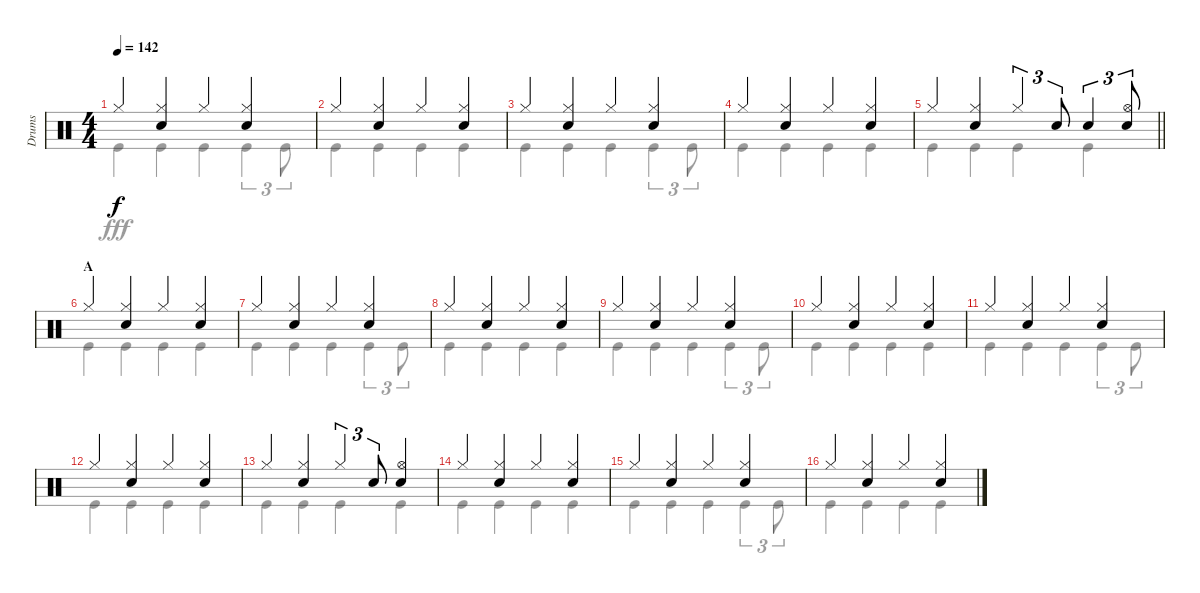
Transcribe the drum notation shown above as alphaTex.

\track ("Drums" "Drums") {instrument percussion}
\staff {score}
\articulation defaults
\voice
\ts (4 4)
\tempo 142
\clef neutral
\ks c "Hi-Hat (closed)".4{dy f}
("Hi-Hat (closed)" "Snare (hit) 2").4 "Hi-Hat (closed)".4 ("Hi-Hat (closed)" "Snare (hit) 2").4 |
"Hi-Hat (closed)".4 ("Hi-Hat (closed)" "Snare (hit) 2").4 "Hi-Hat (closed)".4 ("Hi-Hat (closed)" "Snare (hit) 2").4 |
"Hi-Hat (closed)".4 ("Hi-Hat (closed)" "Snare (hit) 2").4 "Hi-Hat (closed)".4 ("Hi-Hat (closed)" "Snare (hit) 2").4 |
"Hi-Hat (closed)".4 ("Hi-Hat (closed)" "Snare (hit) 2").4 "Hi-Hat (closed)".4 ("Hi-Hat (closed)" "Snare (hit) 2").4 |
\barLineRight lightlight "Hi-Hat (closed)".4
("Hi-Hat (closed)" "Snare (hit) 2").4 "Hi-Hat (closed)".4{tu (3 2)} "Snare (hit) 2".8{tu (3 2)} "Snare (hit) 2".4{tu (3 2)} ("Hi-Hat (open)" "Snare (hit) 2").8{tu (3 2)} |
\section ("" "A")
"Hi-Hat (closed)".4 ("Hi-Hat (closed)" "Snare (hit) 2").4 "Hi-Hat (closed)".4 ("Hi-Hat (closed)" "Snare (hit) 2").4 |
"Hi-Hat (closed)".4 ("Hi-Hat (closed)" "Snare (hit) 2").4 "Hi-Hat (closed)".4 ("Hi-Hat (closed)" "Snare (hit) 2").4 |
"Hi-Hat (closed)".4 ("Hi-Hat (closed)" "Snare (hit) 2").4 "Hi-Hat (closed)".4 ("Hi-Hat (closed)" "Snare (hit) 2").4 |
"Hi-Hat (closed)".4 ("Hi-Hat (closed)" "Snare (hit) 2").4 "Hi-Hat (closed)".4 ("Hi-Hat (closed)" "Snare (hit) 2").4 |
"Hi-Hat (closed)".4 ("Hi-Hat (closed)" "Snare (hit) 2").4 "Hi-Hat (closed)".4 ("Hi-Hat (closed)" "Snare (hit) 2").4 |
"Hi-Hat (closed)".4 ("Hi-Hat (closed)" "Snare (hit) 2").4 "Hi-Hat (closed)".4 ("Hi-Hat (closed)" "Snare (hit) 2").4 |
"Hi-Hat (closed)".4 ("Hi-Hat (closed)" "Snare (hit) 2").4 "Hi-Hat (closed)".4 ("Hi-Hat (closed)" "Snare (hit) 2").4 |
"Hi-Hat (closed)".4 ("Hi-Hat (closed)" "Snare (hit) 2").4 "Hi-Hat (closed)".4{tu (3 2)} "Snare (hit) 2".8{tu (3 2)} ("Hi-Hat (open)" "Snare (hit) 2").4 |
"Hi-Hat (closed)".4 ("Hi-Hat (closed)" "Snare (hit) 2").4 "Hi-Hat (closed)".4 ("Hi-Hat (closed)" "Snare (hit) 2").4 |
"Hi-Hat (closed)".4 ("Hi-Hat (closed)" "Snare (hit) 2").4 "Hi-Hat (closed)".4 ("Hi-Hat (closed)" "Snare (hit) 2").4 |
"Hi-Hat (closed)".4 ("Hi-Hat (closed)" "Snare (hit) 2").4 "Hi-Hat (closed)".4 ("Hi-Hat (closed)" "Snare (hit) 2").4
\voice
\clef neutral
\ottava regular
\simile none
\ks c "Kick (hit)".4{dy fff} "Kick (hit)".4 "Kick (hit)".4 "Kick (hit)".4{tu (3 2)} "Kick (hit)".8{tu (3 2)}
|
"Kick (hit)".4 "Kick (hit)".4 "Kick (hit)".4 "Kick (hit)".4 |
"Kick (hit)".4 "Kick (hit)".4 "Kick (hit)".4 "Kick (hit)".4{tu (3 2)} "Kick (hit)".8{tu (3 2)} |
"Kick (hit)".4 "Kick (hit)".4 "Kick (hit)".4 "Kick (hit)".4 |
\barLineRight lightlight "Kick (hit)".4 "Kick (hit)".4 "Kick (hit)".4 "Kick (hit)".4
|
"Kick (hit)".4 "Kick (hit)".4 "Kick (hit)".4 "Kick (hit)".4 |
"Kick (hit)".4 "Kick (hit)".4 "Kick (hit)".4 "Kick (hit)".4{tu (3 2)} "Kick (hit)".8{tu (3 2)} |
"Kick (hit)".4 "Kick (hit)".4 "Kick (hit)".4 "Kick (hit)".4 |
"Kick (hit)".4 "Kick (hit)".4 "Kick (hit)".4 "Kick (hit)".4{tu (3 2)} "Kick (hit)".8{tu (3 2)} |
"Kick (hit)".4 "Kick (hit)".4 "Kick (hit)".4 "Kick (hit)".4 |
"Kick (hit)".4 "Kick (hit)".4 "Kick (hit)".4 "Kick (hit)".4{tu (3 2)} "Kick (hit)".8{tu (3 2)} |
"Kick (hit)".4 "Kick (hit)".4 "Kick (hit)".4 "Kick (hit)".4 |
"Kick (hit)".4 "Kick (hit)".4 "Kick (hit)".4 "Kick (hit)".4 |
"Kick (hit)".4 "Kick (hit)".4 "Kick (hit)".4 "Kick (hit)".4 |
"Kick (hit)".4 "Kick (hit)".4 "Kick (hit)".4 "Kick (hit)".4{tu (3 2)} "Kick (hit)".8{tu (3 2)} |
"Kick (hit)".4 "Kick (hit)".4 "Kick (hit)".4 "Kick (hit)".4
